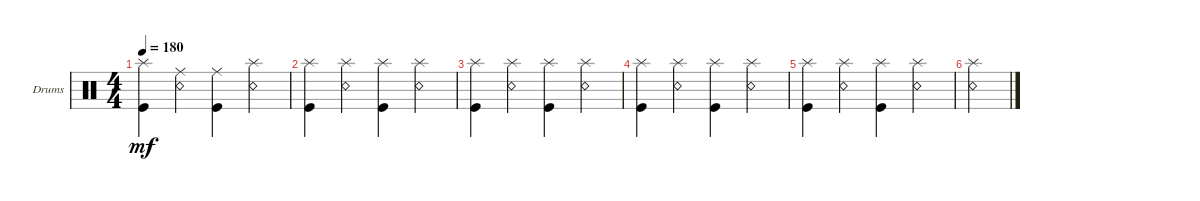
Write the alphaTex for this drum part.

\defaultSystemsLayout 4
\bracketExtendMode groupsimilarinstruments
\firstSystemTrackNameOrientation horizontal
\otherSystemsTrackNameOrientation horizontal
\track ("Drumkit" "Drums") {instrument percussion}
\staff {score}
\articulation defaults
\ts (4 4)
\tempo 180
\clef neutral
\scale
0.333333
\ks c
("Kick (hit)" "Splash (hit)").4{dy mf} ("Snare (rim shot)" "Ride (middle)").4 ("Kick (hit)" "Ride (middle)").4 ("Snare (rim shot)" "Splash (hit)").4 |
\scale
0.333333 ("Kick (hit)" "Splash (hit)").4 ("Snare (rim shot)" "Splash (hit)").4 ("Kick (hit)" "Splash (hit)").4 ("Snare (rim shot)" "Splash (hit)").4 |
\scale
0.333333 ("Kick (hit)" "Splash (hit)").4 ("Snare (rim shot)" "Splash (hit)").4 ("Kick (hit)" "Splash (hit)").4 ("Snare (rim shot)" "Splash (hit)").4 |
("Kick (hit)" "Splash (hit)").4 ("Snare (rim shot)" "Splash (hit)").4 ("Kick (hit)" "Splash (hit)").4 ("Snare (rim shot)" "Splash (hit)").4 |
("Kick (hit)" "Splash (hit)").4 ("Snare (rim shot)" "Splash (hit)").4 ("Kick (hit)" "Splash (hit)").4 ("Snare (rim shot)" "Splash (hit)").4 |
("Splash (hit)" "Snare (rim shot)").4
